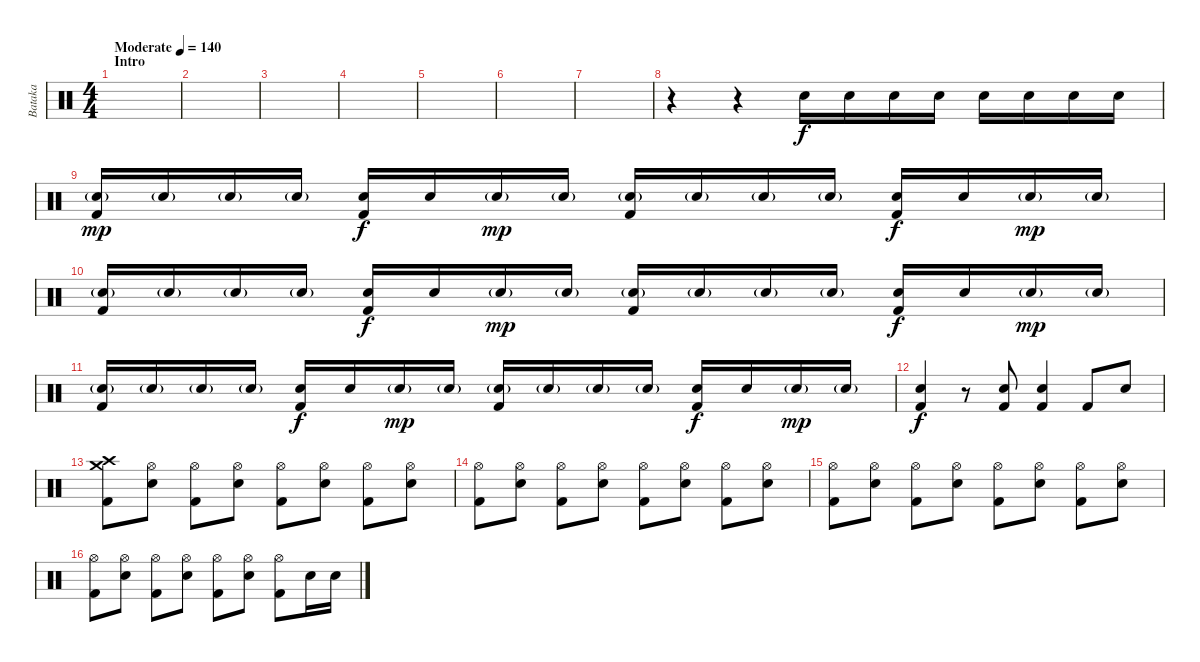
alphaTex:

\track ("Bataka" "Bataka") {instrument percussion}
\staff {score}
\articulation defaults
\ts (4 4)
\section ("" "Intro")
\tempo (140 "Moderate")
\clef neutral
\ks c
|
|
|
|
|
|
|
r.4 r.4 "Electric Snare (hit)".16 "Electric Snare (hit)".16 "Electric Snare (hit)".16 "Electric Snare (hit)".16 "Electric Snare (hit)".16 "Electric Snare (hit)".16 "Electric Snare (hit)".16 "Electric Snare (hit)".16 |
("Electric Snare (hit)"{g} "Kick (hit) 2").16{dy mp} "Electric Snare (hit)"{g}.16 "Electric Snare (hit)"{g}.16 "Electric Snare (hit)"{g}.16 ("Electric Snare (hit)" "Kick (hit) 2").16{dy f} "Electric Snare (hit)".16 "Electric Snare (hit)"{g}.16{dy mp} "Electric Snare (hit)"{g}.16 ("Electric Snare (hit)"{g} "Kick (hit) 2").16 "Electric Snare (hit)"{g}.16 "Electric Snare (hit)"{g}.16 "Electric Snare (hit)"{g}.16 ("Electric Snare (hit)" "Kick (hit) 2").16{dy f} "Electric Snare (hit)".16 "Electric Snare (hit)"{g}.16{dy mp} "Electric Snare (hit)"{g}.16 |
("Electric Snare (hit)"{g} "Kick (hit) 2").16 "Electric Snare (hit)"{g}.16 "Electric Snare (hit)"{g}.16 "Electric Snare (hit)"{g}.16 ("Electric Snare (hit)" "Kick (hit) 2").16{dy f} "Electric Snare (hit)".16 "Electric Snare (hit)"{g}.16{dy mp} "Electric Snare (hit)"{g}.16 ("Electric Snare (hit)"{g} "Kick (hit) 2").16 "Electric Snare (hit)"{g}.16 "Electric Snare (hit)"{g}.16 "Electric Snare (hit)"{g}.16 ("Electric Snare (hit)" "Kick (hit) 2").16{dy f} "Electric Snare (hit)".16 "Electric Snare (hit)"{g}.16{dy mp} "Electric Snare (hit)"{g}.16 |
("Electric Snare (hit)"{g} "Kick (hit) 2").16 "Electric Snare (hit)"{g}.16 "Electric Snare (hit)"{g}.16 "Electric Snare (hit)"{g}.16 ("Electric Snare (hit)" "Kick (hit) 2").16{dy f} "Electric Snare (hit)".16 "Electric Snare (hit)"{g}.16{dy mp} "Electric Snare (hit)"{g}.16 ("Electric Snare (hit)"{g} "Kick (hit) 2").16 "Electric Snare (hit)"{g}.16 "Electric Snare (hit)"{g}.16 "Electric Snare (hit)"{g}.16 ("Electric Snare (hit)" "Kick (hit) 2").16{dy f} "Electric Snare (hit)".16 "Electric Snare (hit)"{g}.16{dy mp} "Electric Snare (hit)"{g}.16 |
("Electric Snare (hit)" "Kick (hit) 2").4{dy f} r.8 ("Electric Snare (hit)" "Kick (hit) 2").8 ("Electric Snare (hit)" "Kick (hit) 2").4 "Kick (hit) 2".8 "Electric Snare (hit)".8 |
("Crash high (hit)" "Crash medium (hit)" "Kick (hit) 2").8 ("Hi-Hat (open)" "Electric Snare (hit)").8 ("Hi-Hat (open)" "Kick (hit) 2").8 ("Hi-Hat (open)" "Electric Snare (hit)").8 ("Hi-Hat (open)" "Kick (hit) 2").8 ("Hi-Hat (open)" "Electric Snare (hit)").8 ("Hi-Hat (open)" "Kick (hit) 2").8 ("Hi-Hat (open)" "Electric Snare (hit)").8 |
("Hi-Hat (open)" "Kick (hit) 2").8 ("Hi-Hat (open)" "Electric Snare (hit)").8 ("Hi-Hat (open)" "Kick (hit) 2").8 ("Hi-Hat (open)" "Electric Snare (hit)").8 ("Hi-Hat (open)" "Kick (hit) 2").8 ("Hi-Hat (open)" "Electric Snare (hit)").8 ("Hi-Hat (open)" "Kick (hit) 2").8 ("Hi-Hat (open)" "Electric Snare (hit)").8 |
("Hi-Hat (open)" "Kick (hit) 2").8 ("Hi-Hat (open)" "Electric Snare (hit)").8 ("Hi-Hat (open)" "Kick (hit) 2").8 ("Hi-Hat (open)" "Electric Snare (hit)").8 ("Hi-Hat (open)" "Kick (hit) 2").8 ("Hi-Hat (open)" "Electric Snare (hit)").8 ("Hi-Hat (open)" "Kick (hit) 2").8 ("Hi-Hat (open)" "Electric Snare (hit)").8 |
("Hi-Hat (open)" "Kick (hit) 2").8 ("Hi-Hat (open)" "Electric Snare (hit)").8 ("Hi-Hat (open)" "Kick (hit) 2").8 ("Hi-Hat (open)" "Electric Snare (hit)").8 ("Hi-Hat (open)" "Kick (hit) 2").8 ("Hi-Hat (open)" "Electric Snare (hit)").8 ("Hi-Hat (open)" "Kick (hit) 2").8 "Electric Snare (hit)".16 "Electric Snare (hit)".16
